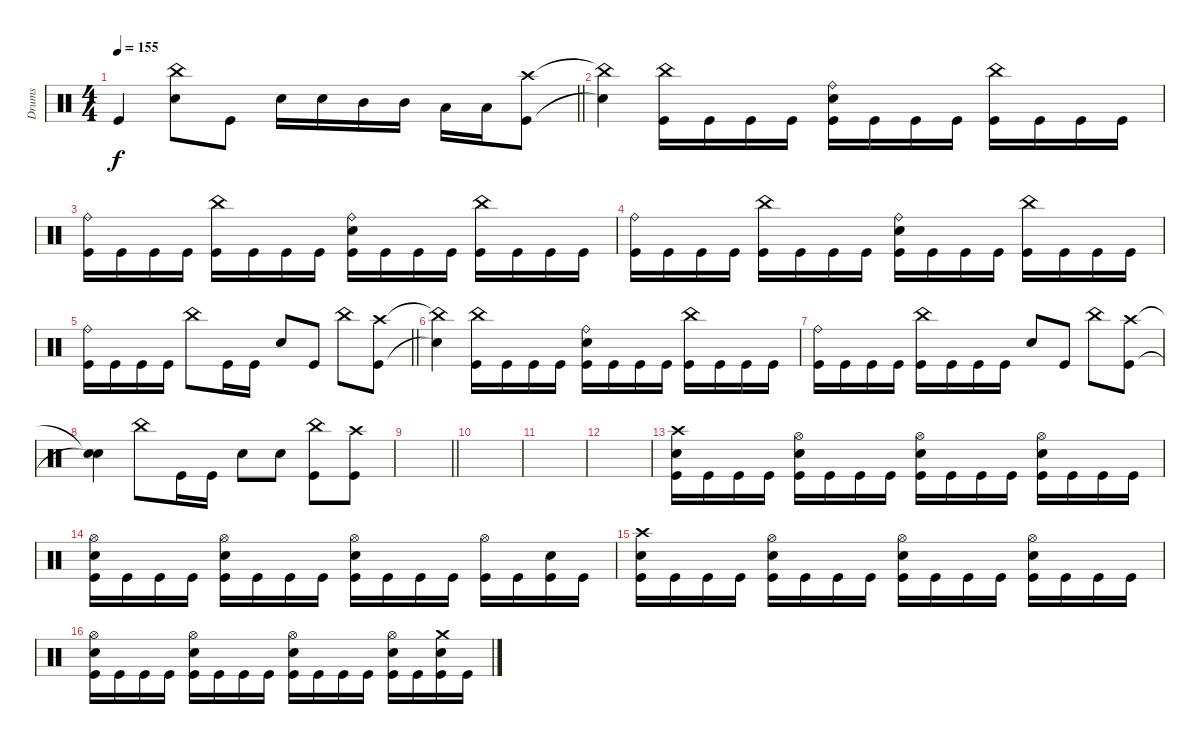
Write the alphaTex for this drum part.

\track ("Drums" "Drums") {instrument percussion}
\staff
\articulation defaults
\ts (4 4)
\tempo 155
\clef neutral
\barLineRight lightlight
\ks c "Kick (hit)"{t}.4{dy f}
("China (hit)" "Electric Snare (hit)").8 "Kick (hit)".8 "Electric Snare (hit)".16 "Electric Snare (hit)".16 "Mid Tom (hit)".16 "Mid Tom (hit)".16 "Low Tom (hit)".16 "Low Tom (hit)".16 ("Crash high (hit)" "Kick (hit)").8 |
("China (hit)"{t} "Snare (hit)"{t}).4 ("China (hit)" "Kick (hit)").16 "Kick (hit)".16 "Kick (hit)".16 "Kick (hit)".16 ("Ride (bell)" "Electric Snare (hit)" "Kick (hit)").16 "Kick (hit)".16 "Kick (hit)".16 "Kick (hit)".16 ("China (hit)" "Kick (hit)").16 "Kick (hit)".16 "Kick (hit)".16 "Kick (hit)".16 |
("Ride (bell)" "Kick (hit)").16 "Kick (hit)".16 "Kick (hit)".16 "Kick (hit)".16 ("China (hit)" "Kick (hit)").16 "Kick (hit)".16 "Kick (hit)".16 "Kick (hit)".16 ("Ride (bell)" "Electric Snare (hit)" "Kick (hit)").16 "Kick (hit)".16 "Kick (hit)".16 "Kick (hit)".16 ("China (hit)" "Kick (hit)").16 "Kick (hit)".16 "Kick (hit)".16 "Kick (hit)".16 |
("Ride (bell)" "Kick (hit)").16 "Kick (hit)".16 "Kick (hit)".16 "Kick (hit)".16 ("China (hit)" "Kick (hit)").16 "Kick (hit)".16 "Kick (hit)".16 "Kick (hit)".16 ("Ride (bell)" "Electric Snare (hit)" "Kick (hit)").16 "Kick (hit)".16 "Kick (hit)".16 "Kick (hit)".16 ("China (hit)" "Kick (hit)").16 "Kick (hit)".16 "Kick (hit)".16 "Kick (hit)".16 |
\barLineRight lightlight
("Ride (bell)" "Kick (hit)").16 "Kick (hit)".16 "Kick (hit)".16 "Kick (hit)".16 "China (hit)".8 "Kick (hit)".16 "Kick (hit)".16 "Electric Snare (hit)".8 "Kick (hit)".8 "China (hit)".8 ("Crash high (hit)" "Kick (hit)").8 |
("China (hit)"{t} "Snare (hit)"{t}).4 ("China (hit)" "Kick (hit)").16 "Kick (hit)".16 "Kick (hit)".16 "Kick (hit)".16 ("Ride (bell)" "Electric Snare (hit)" "Kick (hit)").16 "Kick (hit)".16 "Kick (hit)".16 "Kick (hit)".16 ("China (hit)" "Kick (hit)").16 "Kick (hit)".16 "Kick (hit)".16 "Kick (hit)".16 |
("Ride (bell)" "Kick (hit)").16 "Kick (hit)".16 "Kick (hit)".16 "Kick (hit)".16 ("China (hit)" "Kick (hit)").16 "Kick (hit)".16 "Kick (hit)".16 "Kick (hit)".16 "Electric Snare (hit)".8 "Kick (hit)".8 "China (hit)".8 ("Crash high (hit)" "Kick (hit)").8 |
("Snare (hit)"{t} "Snare (hit)"{t}).4 "China (hit)".8 "Kick (hit)".16 "Kick (hit)".16 "Electric Snare (hit)".8 "Electric Snare (hit)".8 ("China (hit)" "Kick (hit)").8 ("Crash high (hit)" "Kick (hit)").8 |
\barLineRight lightlight
|
|
|
|
("Crash high (hit)" "Electric Snare (hit)" "Kick (hit)").16 "Kick (hit)".16 "Kick (hit)".16 "Kick (hit)".16 ("Hi-Hat (open)" "Electric Snare (hit)" "Kick (hit)").16 "Kick (hit)".16 "Kick (hit)".16 "Kick (hit)".16 ("Hi-Hat (open)" "Electric Snare (hit)" "Kick (hit)").16 "Kick (hit)".16 "Kick (hit)".16 "Kick (hit)".16 ("Hi-Hat (open)" "Electric Snare (hit)" "Kick (hit)").16 "Kick (hit)".16 "Kick (hit)".16 "Kick (hit)".16 |
("Hi-Hat (open)" "Electric Snare (hit)" "Kick (hit)").16 "Kick (hit)".16 "Kick (hit)".16 "Kick (hit)".16 ("Hi-Hat (open)" "Electric Snare (hit)" "Kick (hit)").16 "Kick (hit)".16 "Kick (hit)".16 "Kick (hit)".16 ("Hi-Hat (open)" "Electric Snare (hit)" "Kick (hit)").16 "Kick (hit)".16 "Kick (hit)".16 "Kick (hit)".16 ("Hi-Hat (open)" "Kick (hit)").16 "Kick (hit)".16 ("Electric Snare (hit)" "Kick (hit)").16 "Kick (hit)".16 |
("Crash high (hit)" "Electric Snare (hit)" "Kick (hit)").16 "Kick (hit)".16 "Kick (hit)".16 "Kick (hit)".16 ("Hi-Hat (open)" "Electric Snare (hit)" "Kick (hit)").16 "Kick (hit)".16 "Kick (hit)".16 "Kick (hit)".16 ("Hi-Hat (open)" "Electric Snare (hit)" "Kick (hit)").16 "Kick (hit)".16 "Kick (hit)".16 "Kick (hit)".16 ("Hi-Hat (open)" "Electric Snare (hit)" "Kick (hit)").16 "Kick (hit)".16 "Kick (hit)".16 "Kick (hit)".16 |
("Hi-Hat (open)" "Electric Snare (hit)" "Kick (hit)").16 "Kick (hit)".16 "Kick (hit)".16 "Kick (hit)".16 ("Hi-Hat (open)" "Electric Snare (hit)" "Kick (hit)").16 "Kick (hit)".16 "Kick (hit)".16 "Kick (hit)".16 ("Hi-Hat (open)" "Electric Snare (hit)" "Kick (hit)").16 "Kick (hit)".16 "Kick (hit)".16 "Kick (hit)".16 ("Hi-Hat (open)" "Electric Snare (hit)" "Kick (hit)").16 "Kick (hit)".16 ("Crash medium (hit)" "Electric Snare (hit)" "Kick (hit)").16 "Kick (hit)".16
